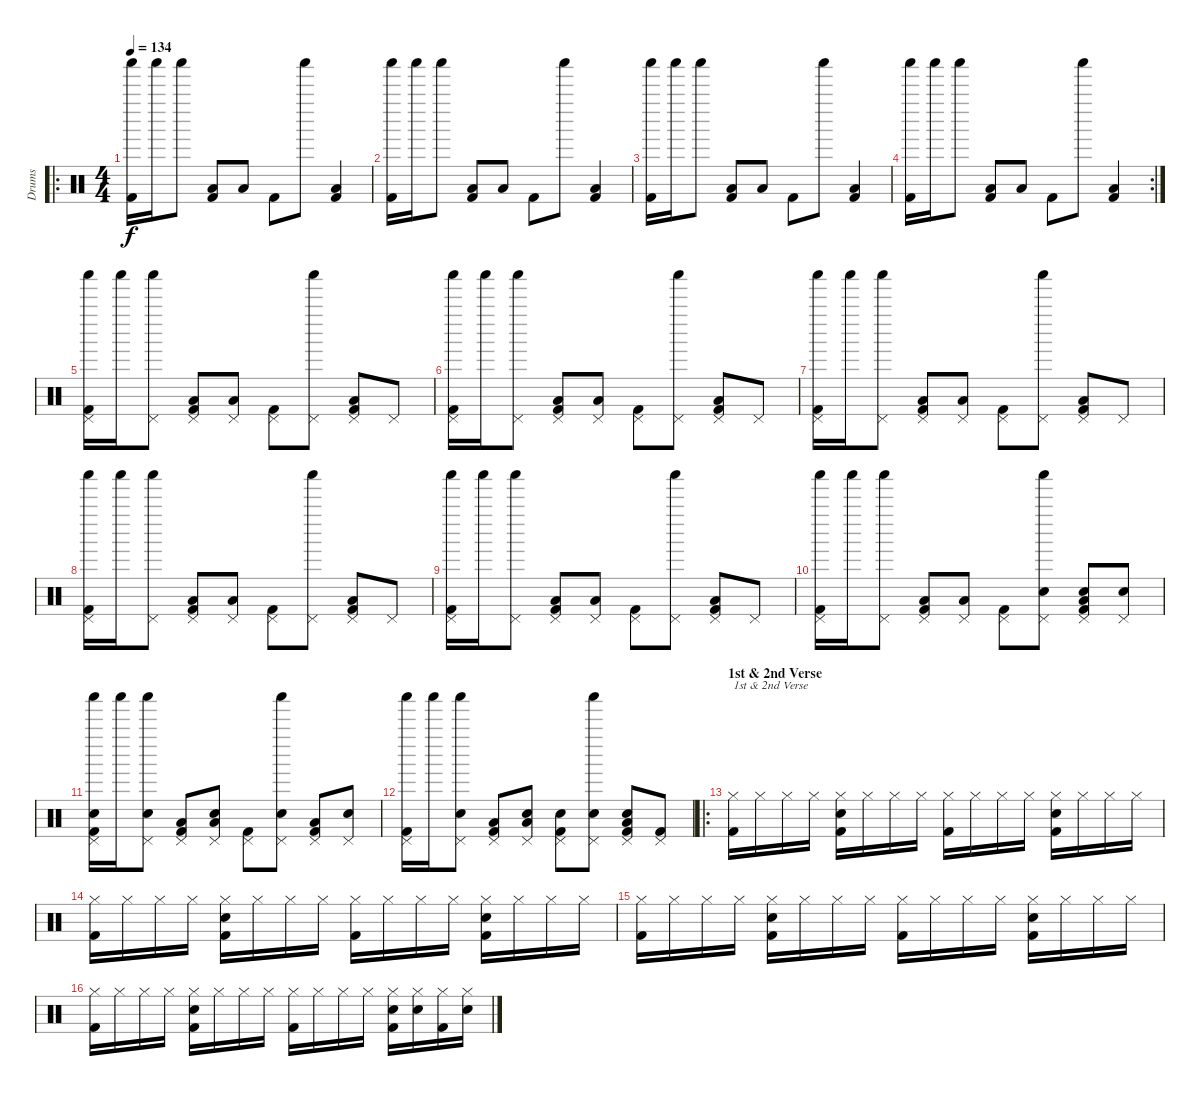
\track ("Drums" "Drums") {instrument percussion}
\staff {score}
\articulation defaults
\ro
\ts (4 4)
\tempo 134
\clef neutral
\ks c
("Shaker (hit)" "Kick (hit) 2").16{dy f} "Shaker (hit)".16 "Shaker (hit)".8 ("Low Floor Tom (hit)" "Kick (hit) 2").8 "Low Floor Tom (hit)".8 "Kick (hit) 2".8 "Shaker (hit)".8 ("Low Floor Tom (hit)" "Kick (hit) 2").4 |
("Shaker (hit)" "Kick (hit) 2").16 "Shaker (hit)".16 "Shaker (hit)".8 ("Low Floor Tom (hit)" "Kick (hit) 2").8 "Low Floor Tom (hit)".8 "Kick (hit) 2".8 "Shaker (hit)".8 ("Low Floor Tom (hit)" "Kick (hit) 2").4 |
("Shaker (hit)" "Kick (hit) 2").16 "Shaker (hit)".16 "Shaker (hit)".8 ("Low Floor Tom (hit)" "Kick (hit) 2").8 "Low Floor Tom (hit)".8 "Kick (hit) 2".8 "Shaker (hit)".8 ("Low Floor Tom (hit)" "Kick (hit) 2").4 |
\rc 2
("Shaker (hit)" "Kick (hit) 2").16 "Shaker (hit)".16 "Shaker (hit)".8 ("Low Floor Tom (hit)" "Kick (hit) 2").8 "Low Floor Tom (hit)".8 "Kick (hit) 2".8 "Shaker (hit)".8 ("Low Floor Tom (hit)" "Kick (hit) 2").4 |
("Shaker (hit)" "Pedal Hi-Hat (hit)" "Kick (hit) 2").16 "Shaker (hit)".16 ("Shaker (hit)" "Pedal Hi-Hat (hit)").8 ("Low Floor Tom (hit)" "Pedal Hi-Hat (hit)" "Kick (hit) 2").8 ("Low Floor Tom (hit)" "Pedal Hi-Hat (hit)").8 ("Pedal Hi-Hat (hit)" "Kick (hit) 2").8 ("Shaker (hit)" "Pedal Hi-Hat (hit)").8 ("Low Floor Tom (hit)" "Pedal Hi-Hat (hit)" "Kick (hit) 2").8 "Pedal Hi-Hat (hit)".8 |
("Shaker (hit)" "Pedal Hi-Hat (hit)" "Kick (hit) 2").16 "Shaker (hit)".16 ("Shaker (hit)" "Pedal Hi-Hat (hit)").8 ("Low Floor Tom (hit)" "Pedal Hi-Hat (hit)" "Kick (hit) 2").8 ("Low Floor Tom (hit)" "Pedal Hi-Hat (hit)").8 ("Pedal Hi-Hat (hit)" "Kick (hit) 2").8 ("Shaker (hit)" "Pedal Hi-Hat (hit)").8 ("Low Floor Tom (hit)" "Pedal Hi-Hat (hit)" "Kick (hit) 2").8 "Pedal Hi-Hat (hit)".8 |
("Shaker (hit)" "Pedal Hi-Hat (hit)" "Kick (hit) 2").16 "Shaker (hit)".16 ("Shaker (hit)" "Pedal Hi-Hat (hit)").8 ("Low Floor Tom (hit)" "Pedal Hi-Hat (hit)" "Kick (hit) 2").8 ("Low Floor Tom (hit)" "Pedal Hi-Hat (hit)").8 ("Pedal Hi-Hat (hit)" "Kick (hit) 2").8 ("Shaker (hit)" "Pedal Hi-Hat (hit)").8 ("Low Floor Tom (hit)" "Pedal Hi-Hat (hit)" "Kick (hit) 2").8 "Pedal Hi-Hat (hit)".8 |
("Shaker (hit)" "Pedal Hi-Hat (hit)" "Kick (hit) 2").16 "Shaker (hit)".16 ("Shaker (hit)" "Pedal Hi-Hat (hit)").8 ("Low Floor Tom (hit)" "Pedal Hi-Hat (hit)" "Kick (hit) 2").8 ("Low Floor Tom (hit)" "Pedal Hi-Hat (hit)").8 ("Pedal Hi-Hat (hit)" "Kick (hit) 2").8 ("Shaker (hit)" "Pedal Hi-Hat (hit)").8 ("Low Floor Tom (hit)" "Pedal Hi-Hat (hit)" "Kick (hit) 2").8 "Pedal Hi-Hat (hit)".8 |
("Shaker (hit)" "Pedal Hi-Hat (hit)" "Kick (hit) 2").16 "Shaker (hit)".16 ("Shaker (hit)" "Pedal Hi-Hat (hit)").8 ("Low Floor Tom (hit)" "Pedal Hi-Hat (hit)" "Kick (hit) 2").8 ("Low Floor Tom (hit)" "Pedal Hi-Hat (hit)").8 ("Pedal Hi-Hat (hit)" "Kick (hit) 2").8 ("Shaker (hit)" "Pedal Hi-Hat (hit)").8 ("Low Floor Tom (hit)" "Pedal Hi-Hat (hit)" "Kick (hit) 2").8 "Pedal Hi-Hat (hit)".8 |
("Shaker (hit)" "Pedal Hi-Hat (hit)" "Kick (hit) 2").16 "Shaker (hit)".16 ("Shaker (hit)" "Pedal Hi-Hat (hit)").8 ("Low Floor Tom (hit)" "Pedal Hi-Hat (hit)" "Kick (hit) 2").8 ("Low Floor Tom (hit)" "Pedal Hi-Hat (hit)").8 ("Pedal Hi-Hat (hit)" "Kick (hit) 2").8 ("Shaker (hit)" "Pedal Hi-Hat (hit)" "Snare (hit) 2").8 ("Low Floor Tom (hit)" "Pedal Hi-Hat (hit)" "Snare (hit) 2" "Kick (hit) 2").8 ("Pedal Hi-Hat (hit)" "Snare (hit) 2").8 |
("Shaker (hit)" "Pedal Hi-Hat (hit)" "Snare (hit) 2" "Kick (hit) 2").16 "Shaker (hit)".16 ("Shaker (hit)" "Pedal Hi-Hat (hit)" "Snare (hit) 2").8 ("Low Floor Tom (hit)" "Pedal Hi-Hat (hit)" "Kick (hit) 2").8 ("Low Floor Tom (hit)" "Pedal Hi-Hat (hit)" "Snare (hit) 2").8 ("Pedal Hi-Hat (hit)" "Kick (hit) 2").8 ("Shaker (hit)" "Pedal Hi-Hat (hit)" "Snare (hit) 2").8 ("Low Floor Tom (hit)" "Pedal Hi-Hat (hit)" "Kick (hit) 2").8 ("Pedal Hi-Hat (hit)" "Snare (hit) 2").8 |
("Shaker (hit)" "Pedal Hi-Hat (hit)" "Kick (hit) 2").16 "Shaker (hit)".16 ("Shaker (hit)" "Pedal Hi-Hat (hit)" "Snare (hit) 2").8 ("Low Floor Tom (hit)" "Pedal Hi-Hat (hit)" "Kick (hit) 2").8 ("Low Floor Tom (hit)" "Pedal Hi-Hat (hit)" "Snare (hit) 2").8 ("Pedal Hi-Hat (hit)" "Snare (hit) 2" "Kick (hit) 2").8 ("Shaker (hit)" "Pedal Hi-Hat (hit)" "Snare (hit) 2").8 ("Low Floor Tom (hit)" "Pedal Hi-Hat (hit)" "Snare (hit) 2" "Kick (hit) 2").8 ("Pedal Hi-Hat (hit)" "Kick (hit) 2").8 |
\ro
\section ("" "1st & 2nd Verse")
("Hi-Hat (closed)" "Kick (hit) 2").16{txt "1st & 2nd Verse"} "Hi-Hat (closed)".16 "Hi-Hat (closed)".16 "Hi-Hat (closed)".16 ("Hi-Hat (closed)" "Snare (hit) 2" "Kick (hit) 2").16 "Hi-Hat (closed)".16 "Hi-Hat (closed)".16 "Hi-Hat (closed)".16 ("Hi-Hat (closed)" "Kick (hit) 2").16 "Hi-Hat (closed)".16 "Hi-Hat (closed)".16 "Hi-Hat (closed)".16 ("Hi-Hat (closed)" "Snare (hit) 2" "Kick (hit) 2").16 "Hi-Hat (closed)".16 "Hi-Hat (closed)".16 "Hi-Hat (closed)".16 |
("Hi-Hat (closed)" "Kick (hit) 2").16 "Hi-Hat (closed)".16 "Hi-Hat (closed)".16 "Hi-Hat (closed)".16 ("Hi-Hat (closed)" "Snare (hit) 2" "Kick (hit) 2").16 "Hi-Hat (closed)".16 "Hi-Hat (closed)".16 "Hi-Hat (closed)".16 ("Hi-Hat (closed)" "Kick (hit) 2").16 "Hi-Hat (closed)".16 "Hi-Hat (closed)".16 "Hi-Hat (closed)".16 ("Hi-Hat (closed)" "Snare (hit) 2" "Kick (hit) 2").16 "Hi-Hat (closed)".16 "Hi-Hat (closed)".16 "Hi-Hat (closed)".16 |
("Hi-Hat (closed)" "Kick (hit) 2").16 "Hi-Hat (closed)".16 "Hi-Hat (closed)".16 "Hi-Hat (closed)".16 ("Hi-Hat (closed)" "Snare (hit) 2" "Kick (hit) 2").16 "Hi-Hat (closed)".16 "Hi-Hat (closed)".16 "Hi-Hat (closed)".16 ("Hi-Hat (closed)" "Kick (hit) 2").16 "Hi-Hat (closed)".16 "Hi-Hat (closed)".16 "Hi-Hat (closed)".16 ("Hi-Hat (closed)" "Snare (hit) 2" "Kick (hit) 2").16 "Hi-Hat (closed)".16 "Hi-Hat (closed)".16 "Hi-Hat (closed)".16 |
("Hi-Hat (closed)" "Kick (hit) 2").16 "Hi-Hat (closed)".16 "Hi-Hat (closed)".16 "Hi-Hat (closed)".16 ("Hi-Hat (closed)" "Snare (hit) 2" "Kick (hit) 2").16 "Hi-Hat (closed)".16 "Hi-Hat (closed)".16 "Hi-Hat (closed)".16 ("Hi-Hat (closed)" "Kick (hit) 2").16 "Hi-Hat (closed)".16 "Hi-Hat (closed)".16 "Hi-Hat (closed)".16 ("Hi-Hat (closed)" "Snare (hit) 2" "Kick (hit) 2").16 ("Hi-Hat (closed)" "Snare (hit) 2").16 ("Hi-Hat (closed)" "Kick (hit) 2").16 ("Hi-Hat (closed)" "Snare (hit) 2").16
